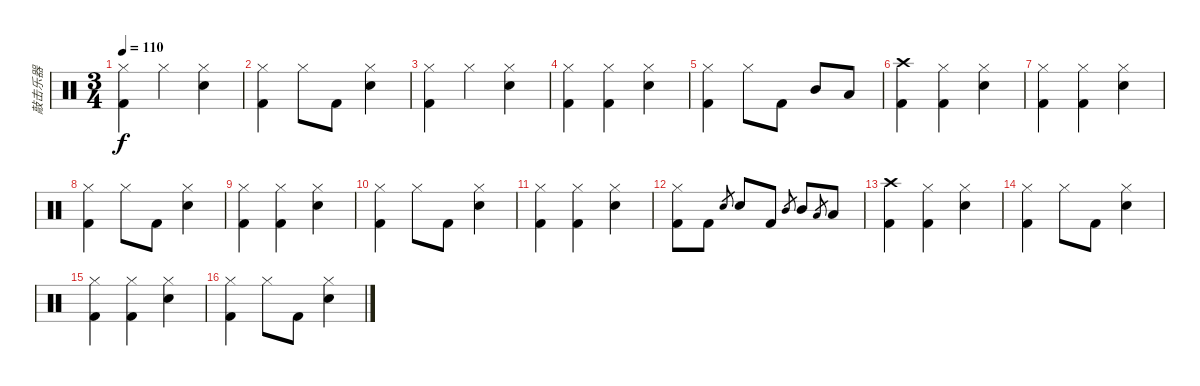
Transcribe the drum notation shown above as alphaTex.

\track ("敲击乐器" "敲击乐器") {instrument percussion}
\staff {score}
\articulation defaults
\ts (3 4)
\tempo 110
\clef neutral
\ks c
("Hi-Hat (closed)" "Kick (hit) 2").4{dy f} "Hi-Hat (closed)".4 ("Hi-Hat (closed)" "Electric Snare (hit)").4 |
("Hi-Hat (closed)" "Kick (hit) 2").4 "Hi-Hat (closed)".8 "Kick (hit) 2".8 ("Hi-Hat (closed)" "Electric Snare (hit)").4 |
("Hi-Hat (closed)" "Kick (hit) 2").4 "Hi-Hat (closed)".4 ("Hi-Hat (closed)" "Electric Snare (hit)").4 |
("Hi-Hat (closed)" "Kick (hit) 2").4 ("Hi-Hat (closed)" "Kick (hit) 2").4 ("Hi-Hat (closed)" "Electric Snare (hit)").4 |
("Hi-Hat (closed)" "Kick (hit) 2").4 "Hi-Hat (closed)".8 "Kick (hit) 2".8 "Mid Tom (hit)".8 "Low Tom (hit)".8 |
("Crash high (hit)" "Kick (hit) 2").4 ("Hi-Hat (closed)" "Kick (hit) 2").4 ("Hi-Hat (closed)" "Electric Snare (hit)").4 |
("Hi-Hat (closed)" "Kick (hit) 2").4 ("Hi-Hat (closed)" "Kick (hit) 2").4 ("Hi-Hat (closed)" "Electric Snare (hit)").4 |
("Hi-Hat (closed)" "Kick (hit) 2").4 "Hi-Hat (closed)".8 "Kick (hit) 2".8 ("Hi-Hat (closed)" "Electric Snare (hit)").4 |
("Hi-Hat (closed)" "Kick (hit) 2").4 ("Hi-Hat (closed)" "Kick (hit) 2").4 ("Hi-Hat (closed)" "Electric Snare (hit)").4 |
("Hi-Hat (closed)" "Kick (hit) 2").4 "Hi-Hat (closed)".8 "Kick (hit) 2".8 ("Hi-Hat (closed)" "Electric Snare (hit)").4 |
("Hi-Hat (closed)" "Kick (hit) 2").4 ("Hi-Hat (closed)" "Kick (hit) 2").4 ("Hi-Hat (closed)" "Electric Snare (hit)").4 |
("Hi-Hat (closed)" "Kick (hit) 2").8 "Kick (hit) 2".8 "Electric Snare (hit)".8{gr} "Electric Snare (hit)".8 "Kick (hit) 2".8 "Mid Tom (hit)".8{gr} "Mid Tom (hit)".8 "Low Tom (hit)".8{gr} "Low Tom (hit)".8 |
("Crash high (hit)" "Kick (hit) 2").4 ("Hi-Hat (closed)" "Kick (hit) 2").4 ("Hi-Hat (closed)" "Electric Snare (hit)").4 |
("Hi-Hat (closed)" "Kick (hit) 2").4 "Hi-Hat (closed)".8 "Kick (hit) 2".8 ("Hi-Hat (closed)" "Electric Snare (hit)").4 |
("Hi-Hat (closed)" "Kick (hit) 2").4 ("Hi-Hat (closed)" "Kick (hit) 2").4 ("Hi-Hat (closed)" "Electric Snare (hit)").4 |
("Hi-Hat (closed)" "Kick (hit) 2").4 "Hi-Hat (closed)".8 "Kick (hit) 2".8 ("Hi-Hat (closed)" "Electric Snare (hit)").4
